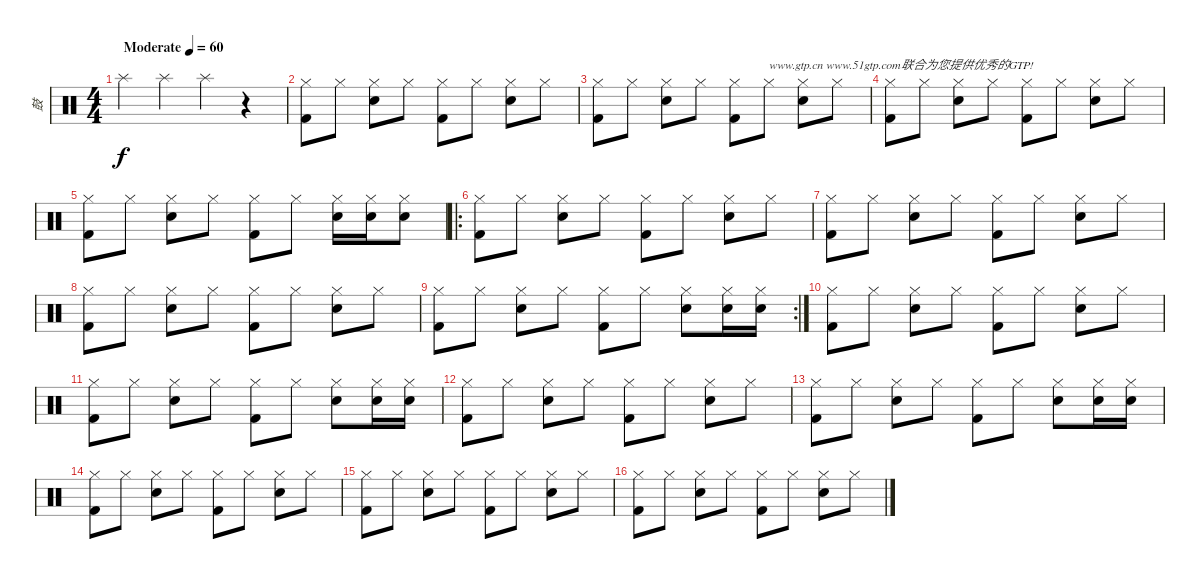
\track ("鼓" "鼓") {instrument percussion}
\staff {score}
\articulation defaults
\ts (4 4)
\tempo (60 "Moderate")
\clef neutral
\ks c "Splash (hit)".4{dy f} "Splash (hit)".4 "Splash (hit)".4
r.4 |
("Hi-Hat (closed)" "Kick (hit) 2").8 "Hi-Hat (closed)".8 ("Hi-Hat (closed)" "Snare (hit) 2").8 "Hi-Hat (closed)".8 ("Hi-Hat (closed)" "Kick (hit) 2").8 "Hi-Hat (closed)".8 ("Hi-Hat (closed)" "Snare (hit) 2").8 "Hi-Hat (closed)".8 |
("Hi-Hat (closed)" "Kick (hit) 2").8 "Hi-Hat (closed)".8 ("Hi-Hat (closed)" "Snare (hit) 2").8 "Hi-Hat (closed)".8 ("Hi-Hat (closed)" "Kick (hit) 2").8 "Hi-Hat (closed)".8{txt "www.gtp.cn www.51gtp.com联合为您提供优秀的GTP!"} ("Hi-Hat (closed)" "Snare (hit) 2").8 "Hi-Hat (closed)".8 |
("Hi-Hat (closed)" "Kick (hit) 2").8 "Hi-Hat (closed)".8 ("Hi-Hat (closed)" "Snare (hit) 2").8 "Hi-Hat (closed)".8 ("Hi-Hat (closed)" "Kick (hit) 2").8 "Hi-Hat (closed)".8 ("Hi-Hat (closed)" "Snare (hit) 2").8 "Hi-Hat (closed)".8 |
("Hi-Hat (closed)" "Kick (hit) 2").8 "Hi-Hat (closed)".8 ("Hi-Hat (closed)" "Snare (hit) 2").8 "Hi-Hat (closed)".8 ("Hi-Hat (closed)" "Kick (hit) 2").8 "Hi-Hat (closed)".8 ("Hi-Hat (closed)" "Snare (hit) 2").16 ("Hi-Hat (closed)" "Snare (hit) 2").16 ("Hi-Hat (closed)" "Snare (hit) 2").8 |
\ro
("Hi-Hat (closed)" "Kick (hit) 2").8 "Hi-Hat (closed)".8 ("Hi-Hat (closed)" "Snare (hit) 2").8 "Hi-Hat (closed)".8 ("Hi-Hat (closed)" "Kick (hit) 2").8 "Hi-Hat (closed)".8 ("Hi-Hat (closed)" "Snare (hit) 2").8 "Hi-Hat (closed)".8 |
("Hi-Hat (closed)" "Kick (hit) 2").8 "Hi-Hat (closed)".8 ("Hi-Hat (closed)" "Snare (hit) 2").8 "Hi-Hat (closed)".8 ("Hi-Hat (closed)" "Kick (hit) 2").8 "Hi-Hat (closed)".8 ("Hi-Hat (closed)" "Snare (hit) 2").8 "Hi-Hat (closed)".8 |
("Hi-Hat (closed)" "Kick (hit) 2").8 "Hi-Hat (closed)".8 ("Hi-Hat (closed)" "Snare (hit) 2").8 "Hi-Hat (closed)".8 ("Hi-Hat (closed)" "Kick (hit) 2").8 "Hi-Hat (closed)".8 ("Hi-Hat (closed)" "Snare (hit) 2").8 "Hi-Hat (closed)".8 |
\rc 2
("Hi-Hat (closed)" "Kick (hit) 2").8 "Hi-Hat (closed)".8 ("Hi-Hat (closed)" "Snare (hit) 2").8 "Hi-Hat (closed)".8 ("Hi-Hat (closed)" "Kick (hit) 2").8 "Hi-Hat (closed)".8 ("Hi-Hat (closed)" "Snare (hit) 2").8 ("Hi-Hat (closed)" "Snare (hit) 2").16 ("Hi-Hat (closed)" "Snare (hit) 2").16 |
("Hi-Hat (closed)" "Kick (hit) 2").8 "Hi-Hat (closed)".8 ("Hi-Hat (closed)" "Snare (hit) 2").8 "Hi-Hat (closed)".8 ("Hi-Hat (closed)" "Kick (hit) 2").8 "Hi-Hat (closed)".8 ("Hi-Hat (closed)" "Snare (hit) 2").8 "Hi-Hat (closed)".8 |
("Hi-Hat (closed)" "Kick (hit) 2").8 "Hi-Hat (closed)".8 ("Hi-Hat (closed)" "Snare (hit) 2").8 "Hi-Hat (closed)".8 ("Hi-Hat (closed)" "Kick (hit) 2").8 "Hi-Hat (closed)".8 ("Hi-Hat (closed)" "Snare (hit) 2").8 ("Hi-Hat (closed)" "Snare (hit) 2").16 ("Hi-Hat (closed)" "Snare (hit) 2").16 |
("Hi-Hat (closed)" "Kick (hit) 2").8 "Hi-Hat (closed)".8 ("Hi-Hat (closed)" "Snare (hit) 2").8 "Hi-Hat (closed)".8 ("Hi-Hat (closed)" "Kick (hit) 2").8 "Hi-Hat (closed)".8 ("Hi-Hat (closed)" "Snare (hit) 2").8 "Hi-Hat (closed)".8 |
("Hi-Hat (closed)" "Kick (hit) 2").8 "Hi-Hat (closed)".8 ("Hi-Hat (closed)" "Snare (hit) 2").8 "Hi-Hat (closed)".8 ("Hi-Hat (closed)" "Kick (hit) 2").8 "Hi-Hat (closed)".8 ("Hi-Hat (closed)" "Snare (hit) 2").8 ("Hi-Hat (closed)" "Snare (hit) 2").16 ("Hi-Hat (closed)" "Snare (hit) 2").16 |
("Hi-Hat (closed)" "Kick (hit) 2").8 "Hi-Hat (closed)".8 ("Hi-Hat (closed)" "Snare (hit) 2").8 "Hi-Hat (closed)".8 ("Hi-Hat (closed)" "Kick (hit) 2").8 "Hi-Hat (closed)".8 ("Hi-Hat (closed)" "Snare (hit) 2").8 "Hi-Hat (closed)".8 |
("Hi-Hat (closed)" "Kick (hit) 2").8 "Hi-Hat (closed)".8 ("Hi-Hat (closed)" "Snare (hit) 2").8 "Hi-Hat (closed)".8 ("Hi-Hat (closed)" "Kick (hit) 2").8 "Hi-Hat (closed)".8 ("Hi-Hat (closed)" "Snare (hit) 2").8 "Hi-Hat (closed)".8 |
("Hi-Hat (closed)" "Kick (hit) 2").8 "Hi-Hat (closed)".8 ("Hi-Hat (closed)" "Snare (hit) 2").8 "Hi-Hat (closed)".8 ("Hi-Hat (closed)" "Kick (hit) 2").8 "Hi-Hat (closed)".8 ("Hi-Hat (closed)" "Snare (hit) 2").8 "Hi-Hat (closed)".8
